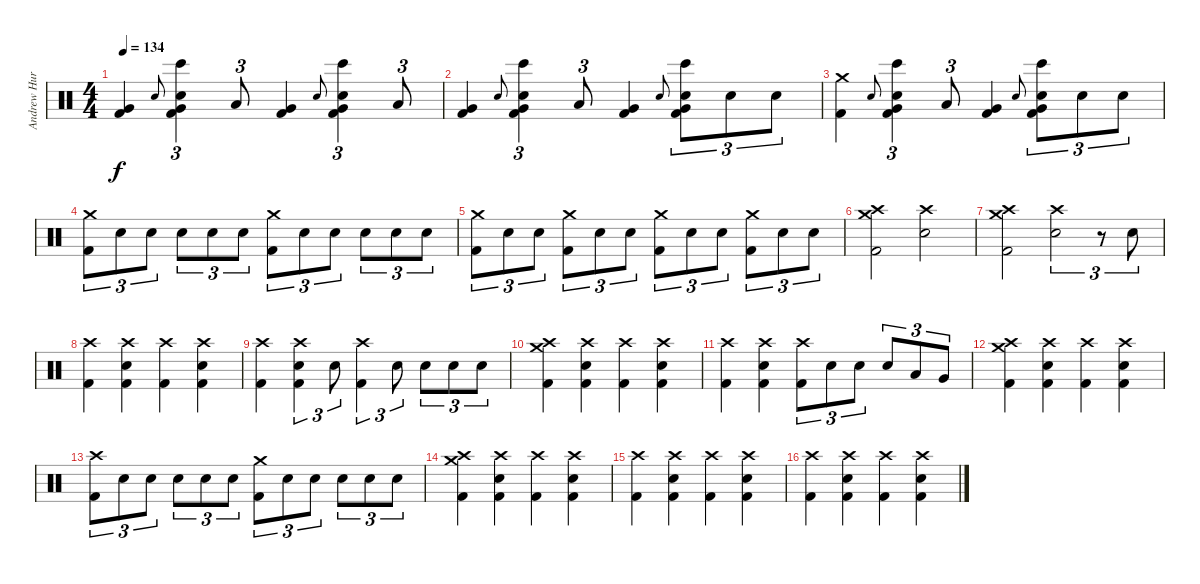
\track ("Andrew Hurley (Drums)" "Andrew Hur") {instrument percussion}
\staff {score}
\articulation defaults
\ts (4 4)
\tempo 134
\clef neutral
\ks c
("Very Low Tom (hit)" "Kick (hit) 2").4{dy f} "Snare (hit)".8{gr onbeat} ("Very Low Tom (hit)" "Snare (hit) 2" "Kick (hit) 2" "Bongo High (hit)").4{tu (3 2)} "Low Tom (hit)".8{tu (3 2)} ("Very Low Tom (hit)" "Kick (hit) 2").4 "Snare (hit)".8{gr onbeat} ("Very Low Tom (hit)" "Snare (hit) 2" "Kick (hit) 2" "Bongo High (hit)").4{tu (3 2)} "Low Tom (hit)".8{tu (3 2)} |
("Very Low Tom (hit)" "Kick (hit) 2").4 "Snare (hit)".8{gr onbeat} ("Very Low Tom (hit)" "Snare (hit) 2" "Kick (hit) 2" "Bongo High (hit)").4{tu (3 2)} "Low Tom (hit)".8{tu (3 2)} ("Very Low Tom (hit)" "Kick (hit) 2").4 "Snare (hit)".8{gr onbeat} ("Very Low Tom (hit)" "Snare (hit) 2" "Kick (hit) 2" "Bongo High (hit)").8{tu (3 2)} "Snare (hit) 2".8{tu (3 2)} "Snare (hit) 2".8{tu (3 2)} |
("Crash medium (hit)" "Kick (hit) 2").4 "Snare (hit)".8{gr onbeat} ("Very Low Tom (hit)" "Snare (hit) 2" "Kick (hit) 2" "Bongo High (hit)").4{tu (3 2)} "Low Tom (hit)".8{tu (3 2)} ("Very Low Tom (hit)" "Kick (hit) 2").4 "Snare (hit)".8{gr onbeat} ("Very Low Tom (hit)" "Snare (hit) 2" "Kick (hit) 2" "Bongo High (hit)").8{tu (3 2)} "Snare (hit) 2".8{tu (3 2)} "Snare (hit) 2".8{tu (3 2)} |
("Crash medium (hit)" "Kick (hit) 2").8{tu (3 2)} "Snare (hit) 2".8{tu (3 2)} "Snare (hit) 2".8{tu (3 2)} "Snare (hit) 2".8{tu (3 2)} "Snare (hit) 2".8{tu (3 2)} "Snare (hit) 2".8{tu (3 2)} ("Crash medium (hit)" "Kick (hit) 2").8{tu (3 2)} "Snare (hit) 2".8{tu (3 2)} "Snare (hit) 2".8{tu (3 2)} "Snare (hit) 2".8{tu (3 2)} "Snare (hit) 2".8{tu (3 2)} "Snare (hit) 2".8{tu (3 2)} |
("Crash medium (hit)" "Kick (hit) 2").8{tu (3 2)} "Snare (hit) 2".8{tu (3 2)} "Snare (hit) 2".8{tu (3 2)} ("Crash medium (hit)" "Kick (hit) 2").8{tu (3 2)} "Snare (hit) 2".8{tu (3 2)} "Snare (hit) 2".8{tu (3 2)} ("Crash medium (hit)" "Kick (hit) 2").8{tu (3 2)} "Snare (hit) 2".8{tu (3 2)} "Snare (hit) 2".8{tu (3 2)} ("Crash medium (hit)" "Kick (hit) 2").8{tu (3 2)} "Snare (hit) 2".8{tu (3 2)} "Snare (hit) 2".8{tu (3 2)} |
("Crash high (hit)" "Crash medium (hit)" "Kick (hit) 2").2 ("Crash high (hit)" "Snare (hit) 2").2 |
("Crash high (hit)" "Crash medium (hit)" "Kick (hit) 2").2 ("Crash high (hit)" "Snare (hit) 2").2{tu (3 2)} r.8{tu (3 2)} "Snare (hit) 2".8{tu (3 2)} |
("Crash high (hit)" "Kick (hit) 2").4 ("Crash high (hit)" "Snare (hit) 2" "Kick (hit) 2").4 ("Crash high (hit)" "Kick (hit) 2").4 ("Crash high (hit)" "Snare (hit) 2" "Kick (hit) 2").4 |
("Crash high (hit)" "Kick (hit) 2").4 ("Crash high (hit)" "Snare (hit) 2" "Kick (hit) 2").4{tu (3 2)} "Snare (hit) 2".8{tu (3 2)} ("Crash high (hit)" "Kick (hit) 2").4{tu (3 2)} "Snare (hit) 2".8{tu (3 2)} "Snare (hit) 2".8{tu (3 2)} "Snare (hit) 2".8{tu (3 2)} "Snare (hit) 2".8{tu (3 2)} |
("Crash high (hit)" "Crash medium (hit)" "Kick (hit) 2").4 ("Crash high (hit)" "Snare (hit) 2" "Kick (hit) 2").4 ("Crash high (hit)" "Kick (hit) 2").4 ("Crash high (hit)" "Snare (hit) 2" "Kick (hit) 2").4 |
("Crash high (hit)" "Kick (hit) 2").4 ("Crash high (hit)" "Snare (hit) 2" "Kick (hit) 2").4 ("Crash high (hit)" "Kick (hit) 2").8{tu (3 2)} "Snare (hit) 2".8{tu (3 2)} "Snare (hit) 2".8{tu (3 2)} "Snare (hit) 2".8{tu (3 2)} "Low Tom (hit)".8{tu (3 2)} "Very Low Tom (hit)".8{tu (3 2)} |
("Crash high (hit)" "Crash medium (hit)" "Kick (hit) 2").4 ("Crash high (hit)" "Snare (hit) 2" "Kick (hit) 2").4 ("Crash high (hit)" "Kick (hit) 2").4 ("Crash high (hit)" "Snare (hit) 2" "Kick (hit) 2").4 |
("Crash high (hit)" "Kick (hit) 2").8{tu (3 2)} "Snare (hit) 2".8{tu (3 2)} "Snare (hit) 2".8{tu (3 2)} "Snare (hit) 2".8{tu (3 2)} "Snare (hit) 2".8{tu (3 2)} "Snare (hit) 2".8{tu (3 2)} ("Crash medium (hit)" "Kick (hit) 2").8{tu (3 2)} "Snare (hit) 2".8{tu (3 2)} "Snare (hit) 2".8{tu (3 2)} "Snare (hit) 2".8{tu (3 2)} "Snare (hit) 2".8{tu (3 2)} "Snare (hit) 2".8{tu (3 2)} |
("Crash high (hit)" "Crash medium (hit)" "Kick (hit) 2").4 ("Crash high (hit)" "Snare (hit) 2" "Kick (hit) 2").4 ("Crash high (hit)" "Kick (hit) 2").4 ("Crash high (hit)" "Snare (hit) 2" "Kick (hit) 2").4 |
("Crash high (hit)" "Kick (hit) 2").4 ("Crash high (hit)" "Snare (hit) 2" "Kick (hit) 2").4 ("Crash high (hit)" "Kick (hit) 2").4 ("Crash high (hit)" "Snare (hit) 2" "Kick (hit) 2").4 |
("Crash high (hit)" "Kick (hit) 2").4 ("Crash high (hit)" "Snare (hit) 2" "Kick (hit) 2").4 ("Crash high (hit)" "Kick (hit) 2").4 ("Crash high (hit)" "Snare (hit) 2" "Kick (hit) 2").4
